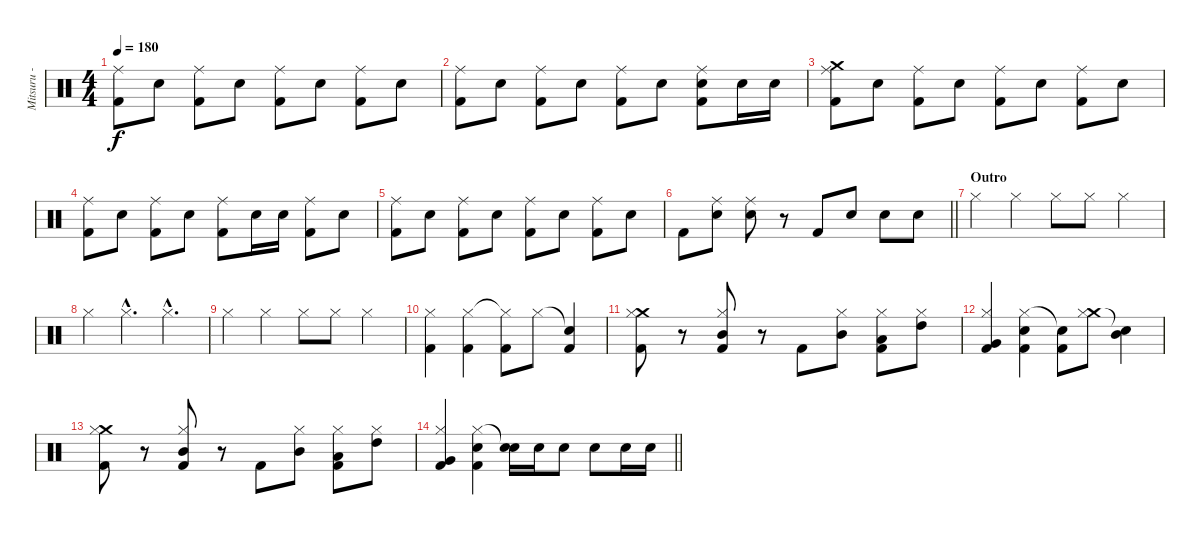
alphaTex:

\track ("Mitsuru - Batterie" "Mitsuru - ") {instrument percussion}
\staff {score}
\articulation defaults
\ts (4 4)
\tempo 180
\clef neutral
\ks c
("Ride (middle)" "Kick (hit) 2").8{dy f} "Electric Snare (hit)".8 ("Ride (middle)" "Kick (hit) 2").8 "Electric Snare (hit)".8 ("Ride (middle)" "Kick (hit) 2").8 "Electric Snare (hit)".8 ("Ride (middle)" "Kick (hit) 2").8 "Electric Snare (hit)".8 |
("Ride (middle)" "Kick (hit) 2").8 "Electric Snare (hit)".8 ("Ride (middle)" "Kick (hit) 2").8 "Electric Snare (hit)".8 ("Ride (middle)" "Kick (hit) 2").8 "Electric Snare (hit)".8 ("Ride (middle)" "Electric Snare (hit)" "Kick (hit) 2").8 "Electric Snare (hit)".16 "Electric Snare (hit)".16 |
("Crash medium (hit)" "Ride (middle)" "Kick (hit) 2").8 "Electric Snare (hit)".8 ("Ride (middle)" "Kick (hit) 2").8 "Electric Snare (hit)".8 ("Ride (middle)" "Kick (hit) 2").8 "Electric Snare (hit)".8 ("Ride (middle)" "Kick (hit) 2").8 "Electric Snare (hit)".8 |
("Ride (middle)" "Kick (hit) 2").8 "Electric Snare (hit)".8 ("Ride (middle)" "Kick (hit) 2").8 "Electric Snare (hit)".8 ("Ride (middle)" "Kick (hit) 2").8 "Electric Snare (hit)".16 "Electric Snare (hit)".16 ("Ride (middle)" "Kick (hit) 2").8 "Electric Snare (hit)".8 |
("Ride (middle)" "Kick (hit) 2").8 "Electric Snare (hit)".8 ("Ride (middle)" "Kick (hit) 2").8 "Electric Snare (hit)".8 ("Ride (middle)" "Kick (hit) 2").8 "Electric Snare (hit)".8 ("Ride (middle)" "Kick (hit) 2").8 "Electric Snare (hit)".8 |
\barLineRight lightlight "Kick (hit) 2".8
("Ride (middle)" "Electric Snare (hit)").8 ("Ride (middle)" "Electric Snare (hit)").8 r.8 "Kick (hit) 2".8 "Electric Snare (hit)".8 "Electric Snare (hit)".8 "Electric Snare (hit)".8 |
\section ("" "Outro")
"Hi-Hat (closed)".4 "Hi-Hat (closed)".4 "Hi-Hat (closed)".8 "Hi-Hat (closed)".8 "Hi-Hat (closed)".4 |
"Hi-Hat (closed)".4 "Hi-Hat (closed)"{hac}.4{d} "Hi-Hat (closed)"{hac}.4{d} |
"Hi-Hat (closed)".4 "Hi-Hat (closed)".4 "Hi-Hat (closed)".8 "Hi-Hat (closed)".8 "Hi-Hat (closed)".4 |
("Hi-Hat (closed)" "Kick (hit) 2").4 ("Hi-Hat (closed)" "Kick (hit) 2").4 ("Hi-Hat (closed)"{t} "Kick (hit) 2").8 "Hi-Hat (closed)".8 ("Snare (hit)"{t} "Kick (hit) 2").4 |
("Crash medium (hit)" "Hi-Hat (closed)" "Kick (hit) 2").8 r.8 ("Hi-Hat (closed)" "Mid Tom (hit)" "Kick (hit) 2").8 r.8 "Kick (hit) 2".8 ("Hi-Hat (closed)" "Mid Tom (hit)").8 ("Hi-Hat (closed)" "Low Tom (hit)" "Kick (hit) 2").8 ("Hi-Hat (closed)" "High Tom (hit)").8 |
("Hi-Hat (closed)" "Very Low Tom (hit)" "Kick (hit) 2").4 ("Hi-Hat (closed)" "Electric Snare (hit)" "Kick (hit) 2").4 ("Snare (hit)"{t} "Kick (hit) 2").8 ("Crash medium (hit)" "Hi-Hat (closed)").8 ("Snare (hit)"{t} "Mid Tom (hit)").4 |
("Crash medium (hit)" "Hi-Hat (closed)" "Kick (hit) 2").8 r.8 ("Hi-Hat (closed)" "Mid Tom (hit)" "Kick (hit) 2").8 r.8 "Kick (hit) 2".8 ("Hi-Hat (closed)" "Mid Tom (hit)").8 ("Hi-Hat (closed)" "Low Tom (hit)" "Kick (hit) 2").8 ("Hi-Hat (closed)" "High Tom (hit)").8 |
\barLineRight lightlight
("Hi-Hat (closed)" "Very Low Tom (hit)" "Kick (hit) 2").4 ("Hi-Hat (closed)" "Electric Snare (hit)" "Kick (hit) 2").4 ("Snare (hit)"{t} "Electric Snare (hit)").16 "Electric Snare (hit)".16 "Electric Snare (hit)".8 "Electric Snare (hit)".8 "Electric Snare (hit)".16 "Electric Snare (hit)".16
